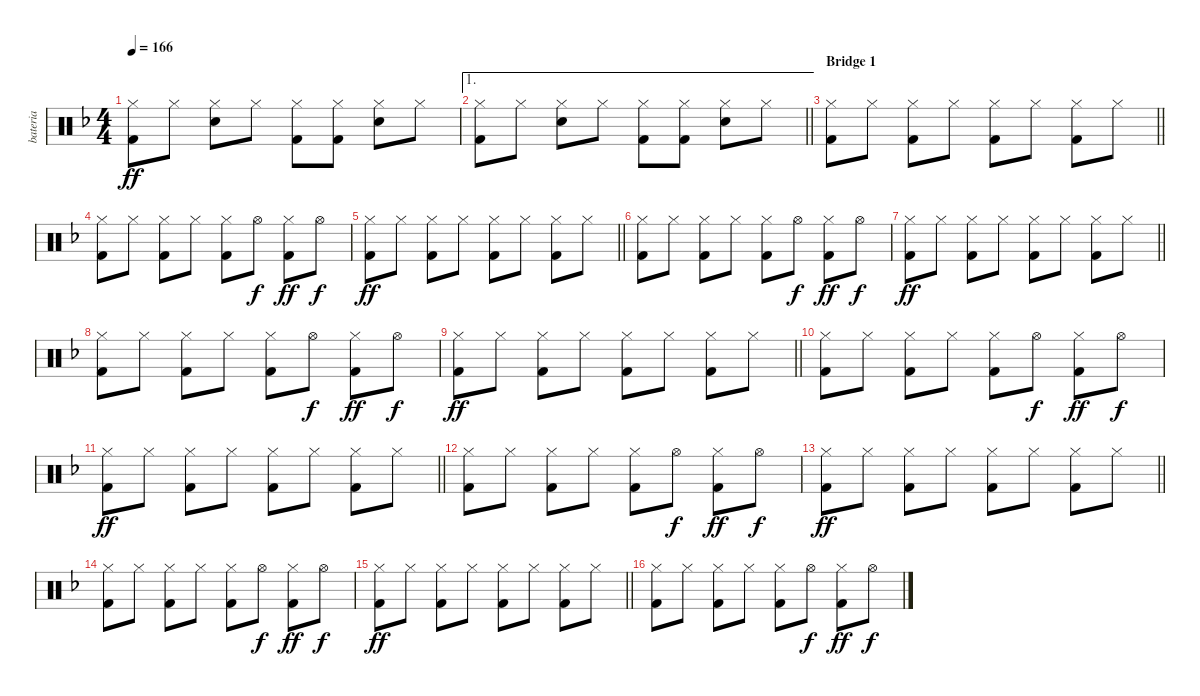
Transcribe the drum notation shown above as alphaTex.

\track ("bateria" "bateria") {instrument percussion}
\staff {score}
\articulation defaults
\ts (4 4)
\tempo 166
\clef neutral
\ks f
("Hi-Hat (closed)" "Kick (hit) 2").8{dy ff} "Hi-Hat (closed)".8 ("Hi-Hat (closed)" "Electric Snare (hit)").8 "Hi-Hat (closed)".8 ("Hi-Hat (closed)" "Kick (hit) 2").8 ("Hi-Hat (closed)" "Kick (hit) 2").8 ("Hi-Hat (closed)" "Electric Snare (hit)").8 "Hi-Hat (closed)".8 |
\ae 1
\barLineRight lightlight
("Hi-Hat (closed)" "Kick (hit) 2").8 "Hi-Hat (closed)".8 ("Hi-Hat (closed)" "Electric Snare (hit)").8 "Hi-Hat (closed)".8 ("Hi-Hat (closed)" "Kick (hit) 2").8 ("Hi-Hat (closed)" "Kick (hit) 2").8 ("Hi-Hat (closed)" "Electric Snare (hit)").8 "Hi-Hat (closed)".8 |
\section ("" "Bridge 1")
\barLineRight lightlight
("Hi-Hat (closed)" "Kick (hit) 2").8 "Hi-Hat (closed)".8 ("Hi-Hat (closed)" "Kick (hit) 2").8 "Hi-Hat (closed)".8 ("Hi-Hat (closed)" "Kick (hit) 2").8 "Hi-Hat (closed)".8 ("Hi-Hat (closed)" "Kick (hit) 2").8 "Hi-Hat (closed)".8 |
("Hi-Hat (closed)" "Kick (hit) 2").8 "Hi-Hat (closed)".8 ("Hi-Hat (closed)" "Kick (hit) 2").8 "Hi-Hat (closed)".8 ("Hi-Hat (closed)" "Kick (hit) 2").8 "Hi-Hat (open)".8{dy f} ("Hi-Hat (closed)" "Kick (hit) 2").8{dy ff} "Hi-Hat (open)".8{dy f} |
\barLineRight lightlight
("Hi-Hat (closed)" "Kick (hit) 2").8{dy ff} "Hi-Hat (closed)".8 ("Hi-Hat (closed)" "Kick (hit) 2").8 "Hi-Hat (closed)".8 ("Hi-Hat (closed)" "Kick (hit) 2").8 "Hi-Hat (closed)".8 ("Hi-Hat (closed)" "Kick (hit) 2").8 "Hi-Hat (closed)".8 |
("Hi-Hat (closed)" "Kick (hit) 2").8 "Hi-Hat (closed)".8 ("Hi-Hat (closed)" "Kick (hit) 2").8 "Hi-Hat (closed)".8 ("Hi-Hat (closed)" "Kick (hit) 2").8 "Hi-Hat (open)".8{dy f} ("Hi-Hat (closed)" "Kick (hit) 2").8{dy ff} "Hi-Hat (open)".8{dy f} |
\barLineRight lightlight
("Hi-Hat (closed)" "Kick (hit) 2").8{dy ff} "Hi-Hat (closed)".8 ("Hi-Hat (closed)" "Kick (hit) 2").8 "Hi-Hat (closed)".8 ("Hi-Hat (closed)" "Kick (hit) 2").8 "Hi-Hat (closed)".8 ("Hi-Hat (closed)" "Kick (hit) 2").8 "Hi-Hat (closed)".8 |
("Hi-Hat (closed)" "Kick (hit) 2").8 "Hi-Hat (closed)".8 ("Hi-Hat (closed)" "Kick (hit) 2").8 "Hi-Hat (closed)".8 ("Hi-Hat (closed)" "Kick (hit) 2").8 "Hi-Hat (open)".8{dy f} ("Hi-Hat (closed)" "Kick (hit) 2").8{dy ff} "Hi-Hat (open)".8{dy f} |
\barLineRight lightlight
("Hi-Hat (closed)" "Kick (hit) 2").8{dy ff} "Hi-Hat (closed)".8 ("Hi-Hat (closed)" "Kick (hit) 2").8 "Hi-Hat (closed)".8 ("Hi-Hat (closed)" "Kick (hit) 2").8 "Hi-Hat (closed)".8 ("Hi-Hat (closed)" "Kick (hit) 2").8 "Hi-Hat (closed)".8 |
("Hi-Hat (closed)" "Kick (hit) 2").8 "Hi-Hat (closed)".8 ("Hi-Hat (closed)" "Kick (hit) 2").8 "Hi-Hat (closed)".8 ("Hi-Hat (closed)" "Kick (hit) 2").8 "Hi-Hat (open)".8{dy f} ("Hi-Hat (closed)" "Kick (hit) 2").8{dy ff} "Hi-Hat (open)".8{dy f} |
\barLineRight lightlight
("Hi-Hat (closed)" "Kick (hit) 2").8{dy ff} "Hi-Hat (closed)".8 ("Hi-Hat (closed)" "Kick (hit) 2").8 "Hi-Hat (closed)".8 ("Hi-Hat (closed)" "Kick (hit) 2").8 "Hi-Hat (closed)".8 ("Hi-Hat (closed)" "Kick (hit) 2").8 "Hi-Hat (closed)".8 |
("Hi-Hat (closed)" "Kick (hit) 2").8 "Hi-Hat (closed)".8 ("Hi-Hat (closed)" "Kick (hit) 2").8 "Hi-Hat (closed)".8 ("Hi-Hat (closed)" "Kick (hit) 2").8 "Hi-Hat (open)".8{dy f} ("Hi-Hat (closed)" "Kick (hit) 2").8{dy ff} "Hi-Hat (open)".8{dy f} |
\barLineRight lightlight
("Hi-Hat (closed)" "Kick (hit) 2").8{dy ff} "Hi-Hat (closed)".8 ("Hi-Hat (closed)" "Kick (hit) 2").8 "Hi-Hat (closed)".8 ("Hi-Hat (closed)" "Kick (hit) 2").8 "Hi-Hat (closed)".8 ("Hi-Hat (closed)" "Kick (hit) 2").8 "Hi-Hat (closed)".8 |
("Hi-Hat (closed)" "Kick (hit) 2").8 "Hi-Hat (closed)".8 ("Hi-Hat (closed)" "Kick (hit) 2").8 "Hi-Hat (closed)".8 ("Hi-Hat (closed)" "Kick (hit) 2").8 "Hi-Hat (open)".8{dy f} ("Hi-Hat (closed)" "Kick (hit) 2").8{dy ff} "Hi-Hat (open)".8{dy f} |
\barLineRight lightlight
("Hi-Hat (closed)" "Kick (hit) 2").8{dy ff} "Hi-Hat (closed)".8 ("Hi-Hat (closed)" "Kick (hit) 2").8 "Hi-Hat (closed)".8 ("Hi-Hat (closed)" "Kick (hit) 2").8 "Hi-Hat (closed)".8 ("Hi-Hat (closed)" "Kick (hit) 2").8 "Hi-Hat (closed)".8 |
("Hi-Hat (closed)" "Kick (hit) 2").8 "Hi-Hat (closed)".8 ("Hi-Hat (closed)" "Kick (hit) 2").8 "Hi-Hat (closed)".8 ("Hi-Hat (closed)" "Kick (hit) 2").8 "Hi-Hat (open)".8{dy f} ("Hi-Hat (closed)" "Kick (hit) 2").8{dy ff} "Hi-Hat (open)".8{dy f}
